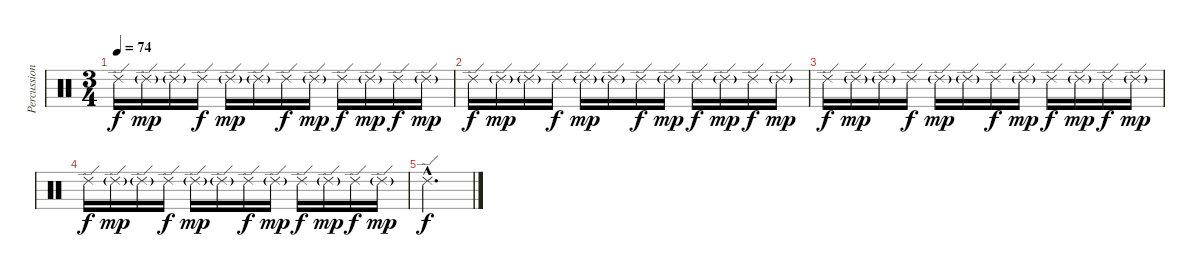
\track ("Percussion" "Percussion") {instrument percussion}
\staff {score}
\articulation defaults
\ts (3 4)
\tempo 74
\clef neutral
\ks c "Ride (edge) 2".16{dy f} "Ride (edge) 2"{g}.16{dy mp} "Ride (edge) 2"{g}.16 "Ride (edge) 2".16{dy f} "Ride (edge) 2"{g}.16{dy mp} "Ride (edge) 2"{g}.16 "Ride (edge) 2".16{dy f} "Ride (edge) 2"{g}.16{dy mp} "Ride (edge) 2".16{dy f} "Ride (edge) 2"{g}.16{dy mp} "Ride (edge) 2".16{dy f} "Ride (edge) 2"{g}.16{dy mp}
|
"Ride (edge) 2".16{dy f} "Ride (edge) 2"{g}.16{dy mp} "Ride (edge) 2"{g}.16 "Ride (edge) 2".16{dy f} "Ride (edge) 2"{g}.16{dy mp} "Ride (edge) 2"{g}.16 "Ride (edge) 2".16{dy f} "Ride (edge) 2"{g}.16{dy mp} "Ride (edge) 2".16{dy f} "Ride (edge) 2"{g}.16{dy mp} "Ride (edge) 2".16{dy f} "Ride (edge) 2"{g}.16{dy mp} |
"Ride (edge) 2".16{dy f} "Ride (edge) 2"{g}.16{dy mp} "Ride (edge) 2"{g}.16 "Ride (edge) 2".16{dy f} "Ride (edge) 2"{g}.16{dy mp} "Ride (edge) 2"{g}.16 "Ride (edge) 2".16{dy f} "Ride (edge) 2"{g}.16{dy mp} "Ride (edge) 2".16{dy f} "Ride (edge) 2"{g}.16{dy mp} "Ride (edge) 2".16{dy f} "Ride (edge) 2"{g}.16{dy mp} |
"Ride (edge) 2".16{dy f} "Ride (edge) 2"{g}.16{dy mp} "Ride (edge) 2"{g}.16 "Ride (edge) 2".16{dy f} "Ride (edge) 2"{g}.16{dy mp} "Ride (edge) 2"{g}.16 "Ride (edge) 2".16{dy f} "Ride (edge) 2"{g}.16{dy mp} "Ride (edge) 2".16{dy f} "Ride (edge) 2"{g}.16{dy mp} "Ride (edge) 2".16{dy f} "Ride (edge) 2"{g}.16{dy mp} |
"Ride (edge) 2"{hac}.2{d dy f}
